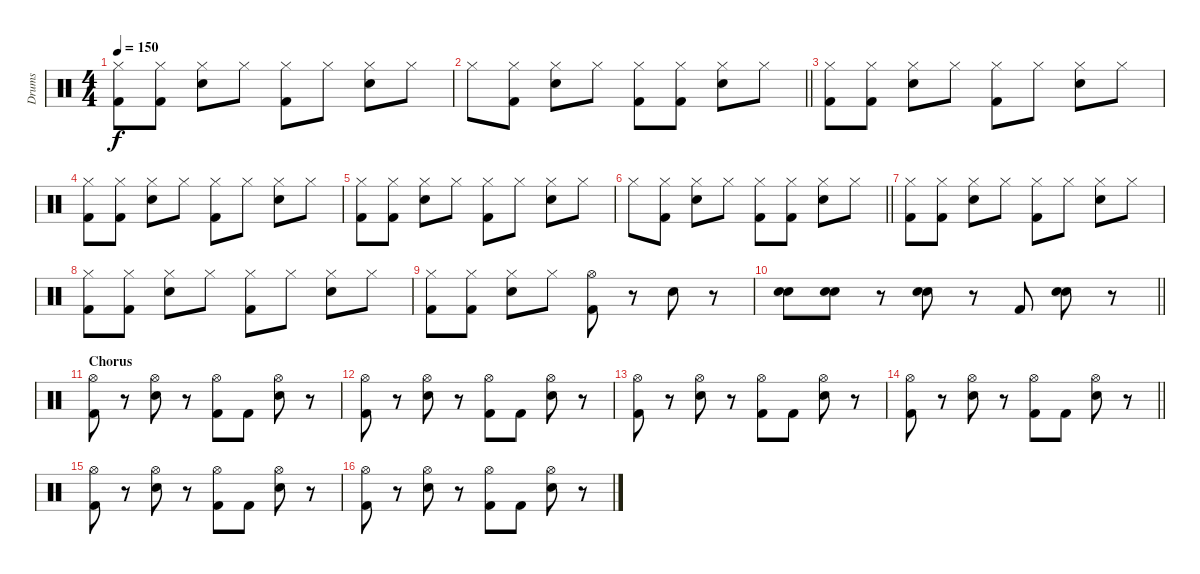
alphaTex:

\track ("Drums" "Drums") {instrument percussion}
\staff {score}
\articulation defaults
\ts (4 4)
\tempo 150
\clef neutral
\ks c
("Hi-Hat (closed)" "Kick (hit) 2").8{dy f} ("Hi-Hat (closed)" "Kick (hit) 2").8 ("Hi-Hat (closed)" "Snare (hit) 2").8 "Hi-Hat (closed)".8 ("Hi-Hat (closed)" "Kick (hit) 2").8 "Hi-Hat (closed)".8 ("Hi-Hat (closed)" "Snare (hit) 2").8 "Hi-Hat (closed)".8 |
\barLineRight lightlight "Hi-Hat (closed)".8
("Hi-Hat (closed)" "Kick (hit) 2").8 ("Hi-Hat (closed)" "Snare (hit) 2").8 "Hi-Hat (closed)".8 ("Hi-Hat (closed)" "Kick (hit) 2").8 ("Hi-Hat (closed)" "Kick (hit) 2").8 ("Hi-Hat (closed)" "Snare (hit) 2").8 "Hi-Hat (closed)".8 |
("Hi-Hat (closed)" "Kick (hit) 2").8 ("Hi-Hat (closed)" "Kick (hit) 2").8 ("Hi-Hat (closed)" "Snare (hit) 2").8 "Hi-Hat (closed)".8 ("Hi-Hat (closed)" "Kick (hit) 2").8 "Hi-Hat (closed)".8 ("Hi-Hat (closed)" "Snare (hit) 2").8 "Hi-Hat (closed)".8 |
("Hi-Hat (closed)" "Kick (hit) 2").8 ("Hi-Hat (closed)" "Kick (hit) 2").8 ("Hi-Hat (closed)" "Snare (hit) 2").8 "Hi-Hat (closed)".8 ("Hi-Hat (closed)" "Kick (hit) 2").8 "Hi-Hat (closed)".8 ("Hi-Hat (closed)" "Snare (hit) 2").8 "Hi-Hat (closed)".8 |
("Hi-Hat (closed)" "Kick (hit) 2").8 ("Hi-Hat (closed)" "Kick (hit) 2").8 ("Hi-Hat (closed)" "Snare (hit) 2").8 "Hi-Hat (closed)".8 ("Hi-Hat (closed)" "Kick (hit) 2").8 "Hi-Hat (closed)".8 ("Hi-Hat (closed)" "Snare (hit) 2").8 "Hi-Hat (closed)".8 |
\barLineRight lightlight "Hi-Hat (closed)".8
("Hi-Hat (closed)" "Kick (hit) 2").8 ("Hi-Hat (closed)" "Snare (hit) 2").8 "Hi-Hat (closed)".8 ("Hi-Hat (closed)" "Kick (hit) 2").8 ("Hi-Hat (closed)" "Kick (hit) 2").8 ("Hi-Hat (closed)" "Snare (hit) 2").8 "Hi-Hat (closed)".8 |
("Hi-Hat (closed)" "Kick (hit) 2").8 ("Hi-Hat (closed)" "Kick (hit) 2").8 ("Hi-Hat (closed)" "Snare (hit) 2").8 "Hi-Hat (closed)".8 ("Hi-Hat (closed)" "Kick (hit) 2").8 "Hi-Hat (closed)".8 ("Hi-Hat (closed)" "Snare (hit) 2").8 "Hi-Hat (closed)".8 |
("Hi-Hat (closed)" "Kick (hit) 2").8 ("Hi-Hat (closed)" "Kick (hit) 2").8 ("Hi-Hat (closed)" "Snare (hit) 2").8 "Hi-Hat (closed)".8 ("Hi-Hat (closed)" "Kick (hit) 2").8 "Hi-Hat (closed)".8 ("Hi-Hat (closed)" "Snare (hit) 2").8 "Hi-Hat (closed)".8 |
("Hi-Hat (closed)" "Kick (hit) 2").8 ("Hi-Hat (closed)" "Kick (hit) 2").8 ("Hi-Hat (closed)" "Snare (hit) 2").8 "Hi-Hat (closed)".8 ("Hi-Hat (open)" "Kick (hit) 2").8 r.8 "Snare (hit) 2".8 r.8 |
\barLineRight lightlight
("Electric Snare (hit)" "Snare (hit) 2").8 ("Electric Snare (hit)" "Snare (hit) 2").8 r.8 ("Electric Snare (hit)" "Snare (hit) 2").8 r.8 "Kick (hit) 2".8 ("Electric Snare (hit)" "Snare (hit) 2").8 r.8 |
\section ("" "Chorus")
("Hi-Hat (open)" "Kick (hit) 2").8 r.8 ("Hi-Hat (open)" "Snare (hit) 2").8 r.8 ("Hi-Hat (open)" "Kick (hit) 2").8 "Kick (hit) 2".8 ("Hi-Hat (open)" "Snare (hit) 2").8 r.8 |
("Hi-Hat (open)" "Kick (hit) 2").8 r.8 ("Hi-Hat (open)" "Snare (hit) 2").8 r.8 ("Hi-Hat (open)" "Kick (hit) 2").8 "Kick (hit) 2".8 ("Hi-Hat (open)" "Snare (hit) 2").8 r.8 |
("Hi-Hat (open)" "Kick (hit) 2").8 r.8 ("Hi-Hat (open)" "Snare (hit) 2").8 r.8 ("Hi-Hat (open)" "Kick (hit) 2").8 "Kick (hit) 2".8 ("Hi-Hat (open)" "Snare (hit) 2").8 r.8 |
\barLineRight lightlight
("Hi-Hat (open)" "Kick (hit) 2").8 r.8 ("Hi-Hat (open)" "Snare (hit) 2").8 r.8 ("Hi-Hat (open)" "Kick (hit) 2").8 "Kick (hit) 2".8 ("Hi-Hat (open)" "Snare (hit) 2").8 r.8 |
("Hi-Hat (open)" "Kick (hit) 2").8 r.8 ("Hi-Hat (open)" "Snare (hit) 2").8 r.8 ("Hi-Hat (open)" "Kick (hit) 2").8 "Kick (hit) 2".8 ("Hi-Hat (open)" "Snare (hit) 2").8 r.8 |
("Hi-Hat (open)" "Kick (hit) 2").8 r.8 ("Hi-Hat (open)" "Snare (hit) 2").8 r.8 ("Hi-Hat (open)" "Kick (hit) 2").8 "Kick (hit) 2".8 ("Hi-Hat (open)" "Snare (hit) 2").8 r.8
